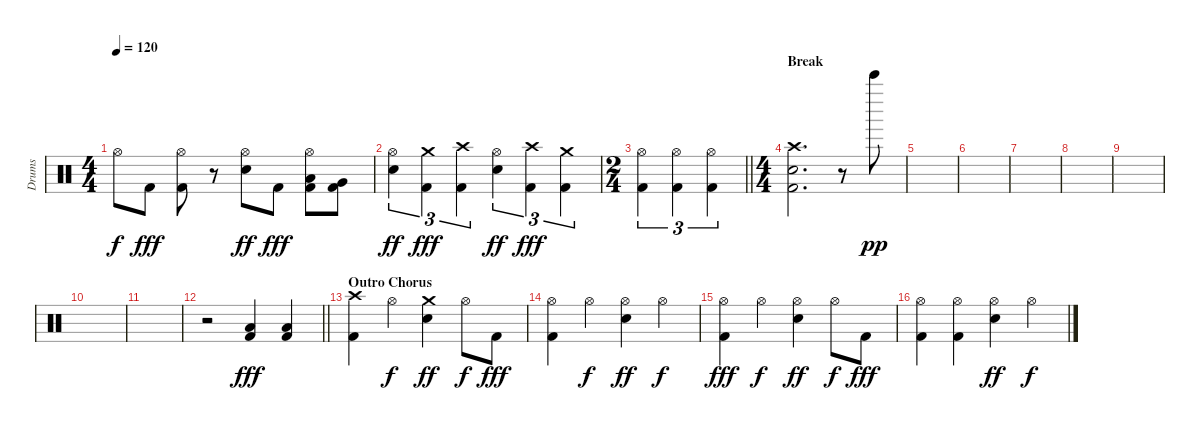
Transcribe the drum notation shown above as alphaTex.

\track ("Drums" "Drums") {instrument percussion}
\staff {score}
\articulation defaults
\ts (4 4)
\tempo 120
\clef neutral
\ks c "Hi-Hat (open)".8{dy f} "Kick (hit) 2".8{dy fff}
("Hi-Hat (open)" "Kick (hit) 2").8 r.8 ("Hi-Hat (open)" "Snare (hit) 2").8{dy ff} "Kick (hit) 2".8{dy fff} ("Hi-Hat (open)" "Low Tom (hit)" "Kick (hit) 2").8 ("Very Low Tom (hit)" "Kick (hit) 2").8 |
("Hi-Hat (open)" "Snare (hit) 2").4{tu (3 2) dy ff} ("Crash medium (hit)" "Kick (hit) 2").4{tu (3 2) dy fff} ("Crash high (hit)" "Kick (hit) 2").4{tu (3 2)} ("Hi-Hat (open)" "Snare (hit) 2").4{tu (3 2) dy ff} ("Crash high (hit)" "Kick (hit) 2").4{tu (3 2) dy fff} ("Crash medium (hit)" "Kick (hit) 2").4{tu (3 2)} |
\ts (2 4)
\barLineRight lightlight
("Hi-Hat (open)" "Kick (hit) 2").4{tu (3 2)} ("Hi-Hat (open)" "Kick (hit) 2").4{tu (3 2)} ("Hi-Hat (open)" "Kick (hit) 2").4{tu (3 2)} |
\ts (4 4)
\section ("" "Break")
("Crash high (hit)" "Snare (hit) 2" "Kick (hit) 2").2{d} r.8 "Bell Tree (hit)".8{dy pp} |
|
|
|
|
|
|
|
\barLineRight lightlight
r.2 ("Low Floor Tom (hit)" "Kick (hit) 2").4{dy fff} ("Low Floor Tom (hit)" "Kick (hit) 2").4 |
\section ("" "Outro Chorus")
("Crash high (hit)" "Kick (hit) 2").4 "Hi-Hat (open)".4{dy f} ("Crash medium (hit)" "Snare (hit) 2").4{dy ff} "Hi-Hat (open)".8{dy f} "Kick (hit) 2".8{dy fff} |
("Hi-Hat (open)" "Kick (hit) 2").4 "Hi-Hat (open)".4{dy f} ("Hi-Hat (open)" "Snare (hit) 2").4{dy ff} "Hi-Hat (open)".4{dy f} |
("Hi-Hat (open)" "Kick (hit) 2").4{dy fff} "Hi-Hat (open)".4{dy f} ("Hi-Hat (open)" "Snare (hit) 2").4{dy ff} "Hi-Hat (open)".8{dy f} "Kick (hit) 2".8{dy fff} |
("Hi-Hat (open)" "Kick (hit) 2").4 ("Hi-Hat (open)" "Kick (hit) 2").4 ("Hi-Hat (open)" "Snare (hit) 2").4{dy ff} "Hi-Hat (open)".4{dy f}
